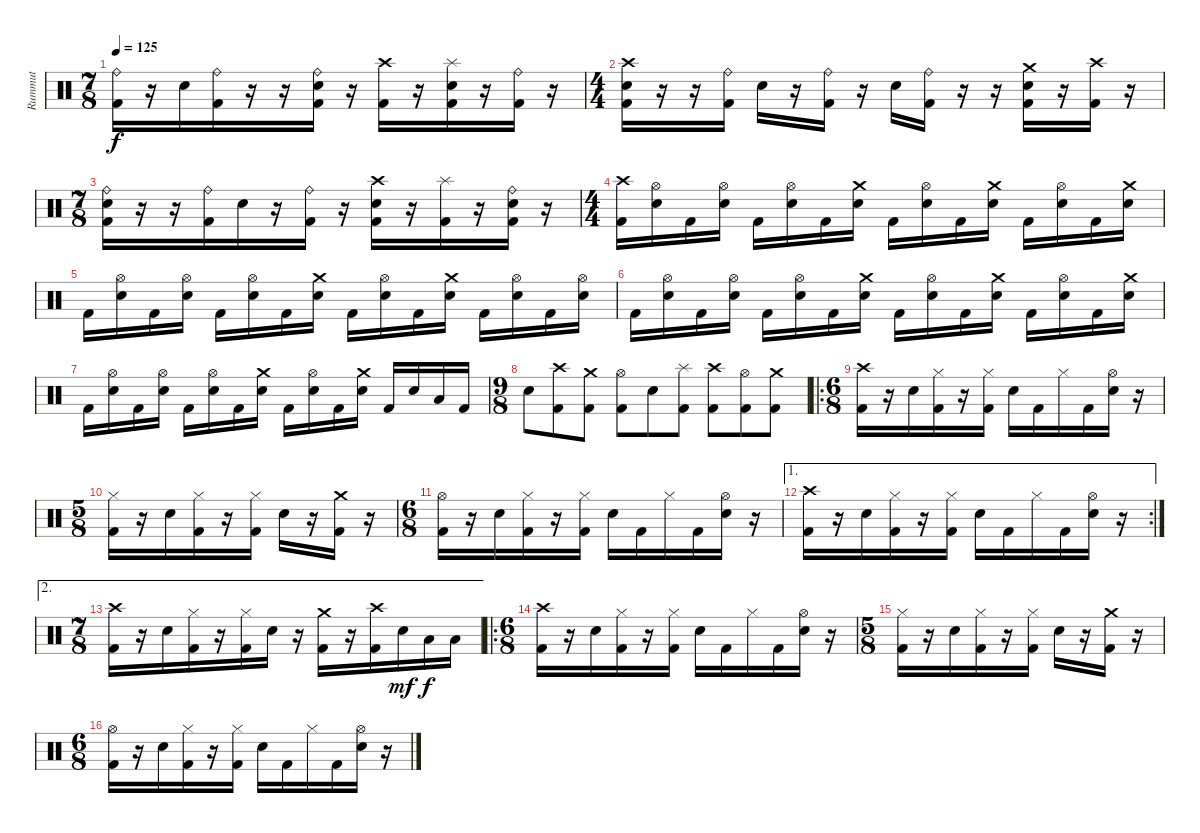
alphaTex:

\track ("Rummut" "Rummut") {instrument percussion}
\staff {score}
\articulation defaults
\ts (7 8)
\tempo 125
\clef neutral
\ks c
("Ride (bell)" "Kick (hit) 2").16{dy f} r.16 "Electric Snare (hit)".16 ("Ride (bell)" "Kick (hit) 2").16 r.16 r.16 ("Ride (bell)" "Electric Snare (hit)" "Kick (hit) 2").16 r.16 ("Crash high (hit)" "Kick (hit) 2").16 r.16 ("Splash (hit)" "Electric Snare (hit)" "Kick (hit) 2").16 r.16 ("Ride (bell)" "Kick (hit) 2").16 r.16 |
\ts (4 4)
("Crash high (hit)" "Electric Snare (hit)" "Kick (hit) 2").16 r.16 r.16 ("Ride (bell)" "Kick (hit) 2").16 "Electric Snare (hit)".16 r.16 ("Ride (bell)" "Kick (hit) 2").16 r.16 "Electric Snare (hit)".16 ("Ride (bell)" "Kick (hit) 2").16 r.16 r.16 ("Crash medium (hit)" "Electric Snare (hit)" "Kick (hit) 2").16 r.16 ("Crash high (hit)" "Kick (hit) 2").16 r.16 |
\ts (7 8)
("Ride (bell)" "Electric Snare (hit)" "Kick (hit) 2").16 r.16 r.16 ("Ride (bell)" "Kick (hit) 2").16 "Electric Snare (hit)".16 r.16 ("Ride (bell)" "Kick (hit) 2").16 r.16 ("Crash high (hit)" "Electric Snare (hit)" "Kick (hit) 2").16 r.16 ("Splash (hit)" "Kick (hit) 2").16 r.16 ("Ride (bell)" "Electric Snare (hit)" "Kick (hit) 2").16 r.16 |
\ts (4 4)
("Crash high (hit)" "Kick (hit) 2").16 ("Hi-Hat (open)" "Electric Snare (hit)").16 "Kick (hit) 2".16 ("Hi-Hat (open)" "Electric Snare (hit)").16 "Kick (hit) 2".16 ("Hi-Hat (open)" "Electric Snare (hit)").16 "Kick (hit) 2".16 ("Crash medium (hit)" "Electric Snare (hit)").16 "Kick (hit) 2".16 ("Hi-Hat (open)" "Electric Snare (hit)").16 "Kick (hit) 2".16 ("Crash medium (hit)" "Electric Snare (hit)").16 "Kick (hit) 2".16 ("Hi-Hat (open)" "Electric Snare (hit)").16 "Kick (hit) 2".16 ("Crash medium (hit)" "Electric Snare (hit)").16 |
"Kick (hit) 2".16 ("Hi-Hat (open)" "Electric Snare (hit)").16 "Kick (hit) 2".16 ("Hi-Hat (open)" "Electric Snare (hit)").16 "Kick (hit) 2".16 ("Hi-Hat (open)" "Electric Snare (hit)").16 "Kick (hit) 2".16 ("Crash medium (hit)" "Electric Snare (hit)").16 "Kick (hit) 2".16 ("Hi-Hat (open)" "Electric Snare (hit)").16 "Kick (hit) 2".16 ("Crash medium (hit)" "Electric Snare (hit)").16 "Kick (hit) 2".16 ("Hi-Hat (open)" "Electric Snare (hit)").16 "Kick (hit) 2".16 ("Hi-Hat (open)" "Electric Snare (hit)").16 |
"Kick (hit) 2".16 ("Hi-Hat (open)" "Electric Snare (hit)").16 "Kick (hit) 2".16 ("Hi-Hat (open)" "Electric Snare (hit)").16 "Kick (hit) 2".16 ("Hi-Hat (open)" "Electric Snare (hit)").16 "Kick (hit) 2".16 ("Crash medium (hit)" "Electric Snare (hit)").16 "Kick (hit) 2".16 ("Hi-Hat (open)" "Electric Snare (hit)").16 "Kick (hit) 2".16 ("Crash medium (hit)" "Electric Snare (hit)").16 "Kick (hit) 2".16 ("Hi-Hat (open)" "Electric Snare (hit)").16 "Kick (hit) 2".16 ("Crash medium (hit)" "Electric Snare (hit)").16 |
"Kick (hit) 2".16 ("Hi-Hat (open)" "Electric Snare (hit)").16 "Kick (hit) 2".16 ("Hi-Hat (open)" "Electric Snare (hit)").16 "Kick (hit) 2".16 ("Hi-Hat (open)" "Electric Snare (hit)").16 "Kick (hit) 2".16 ("Crash medium (hit)" "Electric Snare (hit)").16 "Kick (hit) 2".16 ("Hi-Hat (open)" "Electric Snare (hit)").16 "Kick (hit) 2".16 ("Crash medium (hit)" "Electric Snare (hit)").16 "Kick (hit) 2".16 "Electric Snare (hit)".16 "Low Tom (hit)".16 "Kick (hit) 2".16 |
\ts (9 8)
"Electric Snare (hit)".8 ("Crash high (hit)" "Kick (hit) 2").8 ("Crash medium (hit)" "Kick (hit) 2").8 ("Hi-Hat (open)" "Kick (hit) 2").8 "Electric Snare (hit)".8 ("Splash (hit)" "Kick (hit) 2").8 ("Crash high (hit)" "Kick (hit) 2").8 ("Hi-Hat (open)" "Kick (hit) 2").8 ("Crash medium (hit)" "Kick (hit) 2").8 |
\ro
\ts (6 8)
("Crash high (hit)" "Kick (hit) 2").16 r.16 "Electric Snare (hit)".16 ("Hi-Hat (closed)" "Kick (hit) 2").16 r.16 ("Hi-Hat (closed)" "Kick (hit) 2").16 "Electric Snare (hit)".16 "Kick (hit) 2".16 "Hi-Hat (closed)".16 "Kick (hit) 2".16 ("Hi-Hat (open)" "Electric Snare (hit)").16 r.16 |
\ts (5 8)
("Hi-Hat (closed)" "Kick (hit) 2").16 r.16 "Electric Snare (hit)".16 ("Hi-Hat (closed)" "Kick (hit) 2").16 r.16 ("Hi-Hat (closed)" "Kick (hit) 2").16 "Electric Snare (hit)".16 r.16 ("Crash medium (hit)" "Kick (hit) 2").16 r.16 |
\ts (6 8)
("Hi-Hat (open)" "Kick (hit) 2").16 r.16 "Electric Snare (hit)".16 ("Hi-Hat (closed)" "Kick (hit) 2").16 r.16 ("Hi-Hat (closed)" "Kick (hit) 2").16 "Electric Snare (hit)".16 "Kick (hit) 2".16 "Hi-Hat (closed)".16 "Kick (hit) 2".16 ("Hi-Hat (open)" "Electric Snare (hit)").16 r.16 |
\ae 1
\rc 2
("Crash high (hit)" "Kick (hit) 2").16 r.16 "Electric Snare (hit)".16 ("Hi-Hat (closed)" "Kick (hit) 2").16 r.16 ("Hi-Hat (closed)" "Kick (hit) 2").16 "Electric Snare (hit)".16 "Kick (hit) 2".16 "Hi-Hat (closed)".16 "Kick (hit) 2".16 ("Hi-Hat (open)" "Electric Snare (hit)").16 r.16 |
\ae 2
\ts (7 8)
("Crash high (hit)" "Kick (hit) 2").16 r.16 "Electric Snare (hit)".16 ("Hi-Hat (closed)" "Kick (hit) 2").16 r.16 ("Hi-Hat (closed)" "Kick (hit) 2").16 "Electric Snare (hit)".16 r.16 ("Crash medium (hit)" "Kick (hit) 2").16 r.16 ("Crash high (hit)" "Kick (hit) 2").16 "Electric Snare (hit)".16{dy mf} "Low Tom (hit)".16{dy f} "Low Tom (hit)".16 |
\ro
\ts (6 8)
("Crash high (hit)" "Kick (hit) 2").16 r.16 "Electric Snare (hit)".16 ("Hi-Hat (closed)" "Kick (hit) 2").16 r.16 ("Hi-Hat (closed)" "Kick (hit) 2").16 "Electric Snare (hit)".16 "Kick (hit) 2".16 "Hi-Hat (closed)".16 "Kick (hit) 2".16 ("Hi-Hat (open)" "Electric Snare (hit)").16 r.16 |
\ts (5 8)
("Hi-Hat (closed)" "Kick (hit) 2").16 r.16 "Electric Snare (hit)".16 ("Hi-Hat (closed)" "Kick (hit) 2").16 r.16 ("Hi-Hat (closed)" "Kick (hit) 2").16 "Electric Snare (hit)".16 r.16 ("Crash medium (hit)" "Kick (hit) 2").16 r.16 |
\ts (6 8)
("Hi-Hat (open)" "Kick (hit) 2").16 r.16 "Electric Snare (hit)".16 ("Hi-Hat (closed)" "Kick (hit) 2").16 r.16 ("Hi-Hat (closed)" "Kick (hit) 2").16 "Electric Snare (hit)".16 "Kick (hit) 2".16 "Hi-Hat (closed)".16 "Kick (hit) 2".16 ("Hi-Hat (open)" "Electric Snare (hit)").16 r.16
